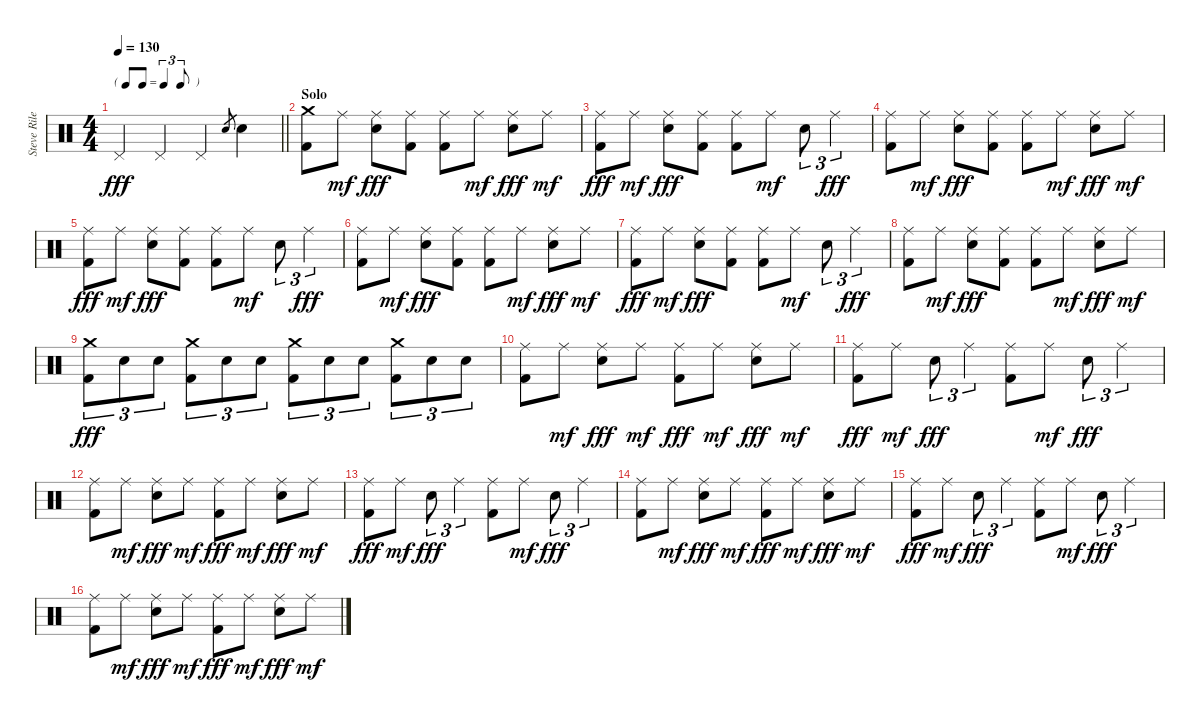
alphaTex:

\track ("Steve Riley - Drums" "Steve Rile") {instrument percussion}
\staff {score}
\articulation defaults
\ts (4 4)
\tf triplet8th
\tempo 130
\clef neutral
\barLineRight lightlight
\ks c "Pedal Hi-Hat (hit)".4{dy fff} "Pedal Hi-Hat (hit)".4 "Pedal Hi-Hat (hit)".4 "Electric Snare (hit)".8{gr} "Electric Snare (hit)".4
|
\section ("" "Solo")
("Crash medium (hit)" "Kick (hit) 2").8 "Ride (middle)".8{dy mf} ("Ride (middle)" "Electric Snare (hit)").8{dy fff} ("Ride (middle)" "Kick (hit) 2").8 ("Ride (middle)" "Kick (hit) 2").8 "Ride (middle)".8{dy mf} ("Ride (middle)" "Electric Snare (hit)").8{dy fff} "Ride (middle)".8{dy mf} |
("Ride (middle)" "Kick (hit) 2").8{dy fff} "Ride (middle)".8{dy mf} ("Ride (middle)" "Electric Snare (hit)").8{dy fff} ("Ride (middle)" "Kick (hit) 2").8 ("Ride (middle)" "Kick (hit) 2").8 "Ride (middle)".8{dy mf} "Electric Snare (hit)".8{tu (3 2)} "Ride (middle)".4{tu (3 2) dy fff} |
("Ride (middle)" "Kick (hit) 2").8 "Ride (middle)".8{dy mf} ("Ride (middle)" "Electric Snare (hit)").8{dy fff} ("Ride (middle)" "Kick (hit) 2").8 ("Ride (middle)" "Kick (hit) 2").8 "Ride (middle)".8{dy mf} ("Ride (middle)" "Electric Snare (hit)").8{dy fff} "Ride (middle)".8{dy mf} |
("Ride (middle)" "Kick (hit) 2").8{dy fff} "Ride (middle)".8{dy mf} ("Ride (middle)" "Electric Snare (hit)").8{dy fff} ("Ride (middle)" "Kick (hit) 2").8 ("Ride (middle)" "Kick (hit) 2").8 "Ride (middle)".8{dy mf} "Electric Snare (hit)".8{tu (3 2)} "Ride (middle)".4{tu (3 2) dy fff} |
("Ride (middle)" "Kick (hit) 2").8 "Ride (middle)".8{dy mf} ("Ride (middle)" "Electric Snare (hit)").8{dy fff} ("Ride (middle)" "Kick (hit) 2").8 ("Ride (middle)" "Kick (hit) 2").8 "Ride (middle)".8{dy mf} ("Ride (middle)" "Electric Snare (hit)").8{dy fff} "Ride (middle)".8{dy mf} |
("Ride (middle)" "Kick (hit) 2").8{dy fff} "Ride (middle)".8{dy mf} ("Ride (middle)" "Electric Snare (hit)").8{dy fff} ("Ride (middle)" "Kick (hit) 2").8 ("Ride (middle)" "Kick (hit) 2").8 "Ride (middle)".8{dy mf} "Electric Snare (hit)".8{tu (3 2)} "Ride (middle)".4{tu (3 2) dy fff} |
("Ride (middle)" "Kick (hit) 2").8 "Ride (middle)".8{dy mf} ("Ride (middle)" "Electric Snare (hit)").8{dy fff} ("Ride (middle)" "Kick (hit) 2").8 ("Ride (middle)" "Kick (hit) 2").8 "Ride (middle)".8{dy mf} ("Ride (middle)" "Electric Snare (hit)").8{dy fff} "Ride (middle)".8{dy mf} |
("Crash medium (hit)" "Kick (hit) 2").8{tu (3 2) dy fff} "Electric Snare (hit)".8{tu (3 2)} "Electric Snare (hit)".8{tu (3 2)} ("Crash medium (hit)" "Kick (hit) 2").8{tu (3 2)} "Electric Snare (hit)".8{tu (3 2)} "Electric Snare (hit)".8{tu (3 2)} ("Crash medium (hit)" "Kick (hit) 2").8{tu (3 2)} "Electric Snare (hit)".8{tu (3 2)} "Electric Snare (hit)".8{tu (3 2)} ("Crash medium (hit)" "Kick (hit) 2").8{tu (3 2)} "Electric Snare (hit)".8{tu (3 2)} "Electric Snare (hit)".8{tu (3 2)} |
("Ride (middle)" "Kick (hit) 2").8 "Ride (middle)".8{dy mf} ("Ride (middle)" "Electric Snare (hit)").8{dy fff} "Ride (middle)".8{dy mf} ("Ride (middle)" "Kick (hit) 2").8{dy fff} "Ride (middle)".8{dy mf} ("Ride (middle)" "Electric Snare (hit)").8{dy fff} "Ride (middle)".8{dy mf} |
("Ride (middle)" "Kick (hit) 2").8{dy fff} "Ride (middle)".8{dy mf} "Electric Snare (hit)".8{tu (3 2) dy fff} "Ride (middle)".4{tu (3 2)} ("Ride (middle)" "Kick (hit) 2").8 "Ride (middle)".8{dy mf} "Electric Snare (hit)".8{tu (3 2) dy fff} "Ride (middle)".4{tu (3 2)} |
("Ride (middle)" "Kick (hit) 2").8 "Ride (middle)".8{dy mf} ("Ride (middle)" "Electric Snare (hit)").8{dy fff} "Ride (middle)".8{dy mf} ("Ride (middle)" "Kick (hit) 2").8{dy fff} "Ride (middle)".8{dy mf} ("Ride (middle)" "Electric Snare (hit)").8{dy fff} "Ride (middle)".8{dy mf} |
("Ride (middle)" "Kick (hit) 2").8{dy fff} "Ride (middle)".8{dy mf} "Electric Snare (hit)".8{tu (3 2) dy fff} "Ride (middle)".4{tu (3 2)} ("Ride (middle)" "Kick (hit) 2").8 "Ride (middle)".8{dy mf} "Electric Snare (hit)".8{tu (3 2) dy fff} "Ride (middle)".4{tu (3 2)} |
("Ride (middle)" "Kick (hit) 2").8 "Ride (middle)".8{dy mf} ("Ride (middle)" "Electric Snare (hit)").8{dy fff} "Ride (middle)".8{dy mf} ("Ride (middle)" "Kick (hit) 2").8{dy fff} "Ride (middle)".8{dy mf} ("Ride (middle)" "Electric Snare (hit)").8{dy fff} "Ride (middle)".8{dy mf} |
("Ride (middle)" "Kick (hit) 2").8{dy fff} "Ride (middle)".8{dy mf} "Electric Snare (hit)".8{tu (3 2) dy fff} "Ride (middle)".4{tu (3 2)} ("Ride (middle)" "Kick (hit) 2").8 "Ride (middle)".8{dy mf} "Electric Snare (hit)".8{tu (3 2) dy fff} "Ride (middle)".4{tu (3 2)} |
("Ride (middle)" "Kick (hit) 2").8 "Ride (middle)".8{dy mf} ("Ride (middle)" "Electric Snare (hit)").8{dy fff} "Ride (middle)".8{dy mf} ("Ride (middle)" "Kick (hit) 2").8{dy fff} "Ride (middle)".8{dy mf} ("Ride (middle)" "Electric Snare (hit)").8{dy fff} "Ride (middle)".8{dy mf}
